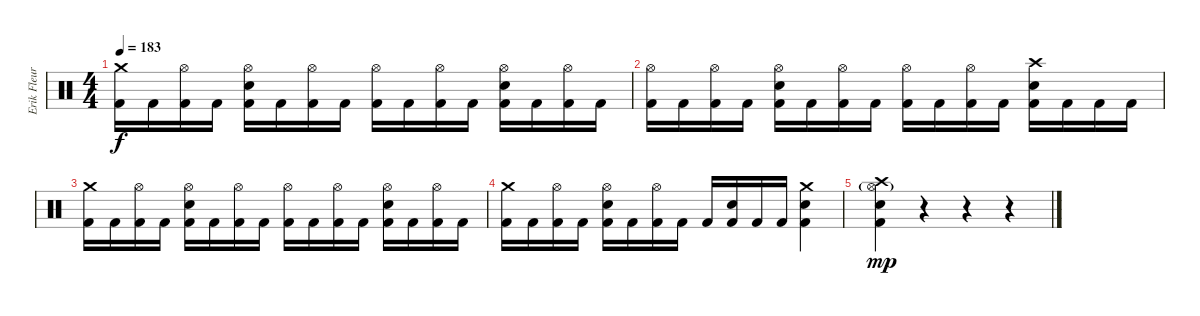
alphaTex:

\track ("Erik Fleuren" "Erik Fleur") {instrument percussion}
\staff {score}
\articulation defaults
\ts (4 4)
\tempo 183
\clef neutral
\ks c
("Crash medium (hit)" "Kick (hit) 2").16{dy f} "Kick (hit) 2".16 ("Hi-Hat (open)" "Kick (hit) 2").16 "Kick (hit) 2".16 ("Hi-Hat (open)" "Electric Snare (hit)" "Kick (hit) 2").16 "Kick (hit) 2".16 ("Hi-Hat (open)" "Kick (hit) 2").16 "Kick (hit) 2".16 ("Hi-Hat (open)" "Kick (hit) 2").16 "Kick (hit) 2".16 ("Hi-Hat (open)" "Kick (hit) 2").16 "Kick (hit) 2".16 ("Hi-Hat (open)" "Electric Snare (hit)" "Kick (hit) 2").16 "Kick (hit) 2".16 ("Hi-Hat (open)" "Kick (hit) 2").16 "Kick (hit) 2".16 |
("Hi-Hat (open)" "Kick (hit) 2").16 "Kick (hit) 2".16 ("Hi-Hat (open)" "Kick (hit) 2").16 "Kick (hit) 2".16 ("Hi-Hat (open)" "Electric Snare (hit)" "Kick (hit) 2").16 "Kick (hit) 2".16 ("Hi-Hat (open)" "Kick (hit) 2").16 "Kick (hit) 2".16 ("Hi-Hat (open)" "Kick (hit) 2").16 "Kick (hit) 2".16 ("Hi-Hat (open)" "Kick (hit) 2").16 "Kick (hit) 2".16 ("Crash high (hit)" "Electric Snare (hit)" "Kick (hit) 2").16 "Kick (hit) 2".16 "Kick (hit) 2".16 "Kick (hit) 2".16 |
("Crash medium (hit)" "Kick (hit) 2").16 "Kick (hit) 2".16 ("Hi-Hat (open)" "Kick (hit) 2").16 "Kick (hit) 2".16 ("Hi-Hat (open)" "Electric Snare (hit)" "Kick (hit) 2").16 "Kick (hit) 2".16 ("Hi-Hat (open)" "Kick (hit) 2").16 "Kick (hit) 2".16 ("Hi-Hat (open)" "Kick (hit) 2").16 "Kick (hit) 2".16 ("Hi-Hat (open)" "Kick (hit) 2").16 "Kick (hit) 2".16 ("Hi-Hat (open)" "Electric Snare (hit)" "Kick (hit) 2").16 "Kick (hit) 2".16 ("Hi-Hat (open)" "Kick (hit) 2").16 "Kick (hit) 2".16 |
("Crash medium (hit)" "Kick (hit) 2").16 "Kick (hit) 2".16 ("Hi-Hat (open)" "Kick (hit) 2").16 "Kick (hit) 2".16 ("Hi-Hat (open)" "Electric Snare (hit)" "Kick (hit) 2").16 "Kick (hit) 2".16 ("Hi-Hat (open)" "Kick (hit) 2").16 "Kick (hit) 2".16 "Kick (hit) 2".16 ("Electric Snare (hit)" "Kick (hit) 2").16 "Kick (hit) 2".16 "Kick (hit) 2".16 ("Crash medium (hit)" "Electric Snare (hit)" "Kick (hit) 2").4 |
("Crash high (hit)" "Hi-Hat (open)"{g} "Electric Snare (hit)" "Kick (hit) 2").4{dy mp} r.4 r.4 r.4
